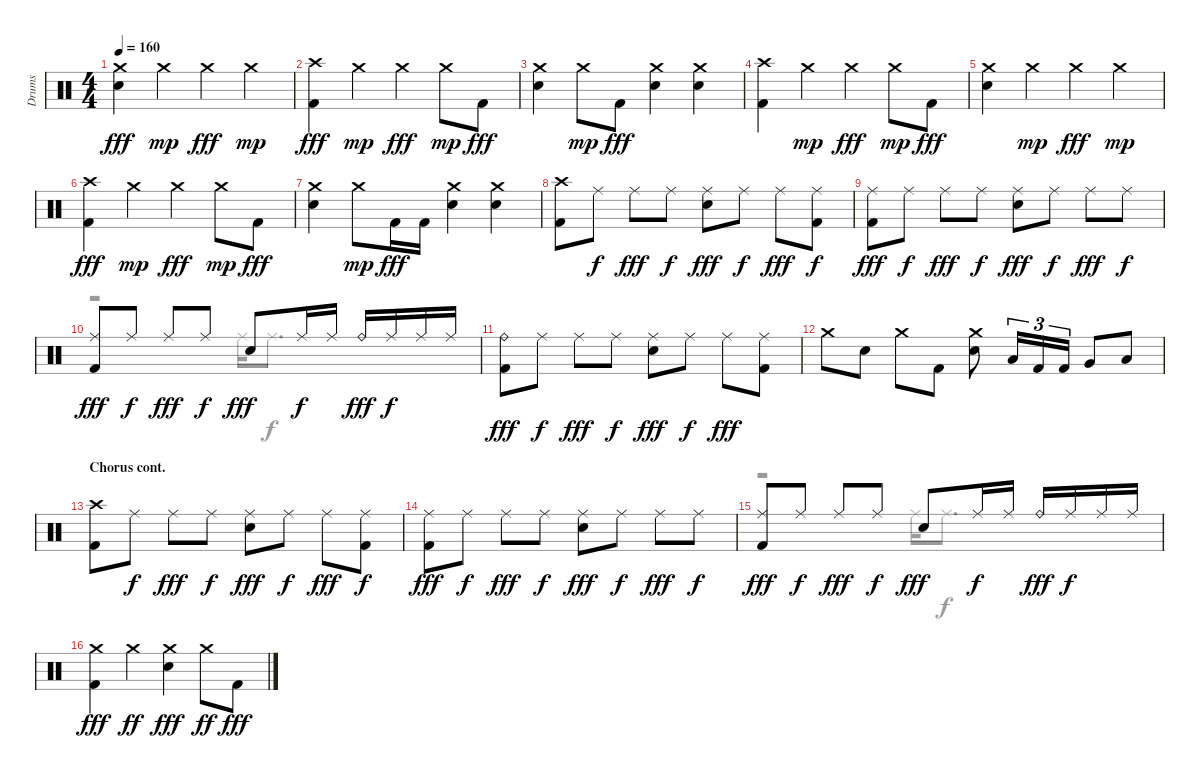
\track ("Drums" "Drums") {instrument percussion}
\staff {score}
\articulation defaults
\voice
\ts (4 4)
\tempo 160
\clef neutral
\ks aminor
("Crash medium (hit)" "Snare (hit) 2").4{dy fff} "Crash medium (hit)".4{dy mp} "Crash medium (hit)".4{dy fff} "Crash medium (hit)".4{dy mp} |
("Kick (hit) 2" "Crash high (hit)").4{dy fff} "Crash medium (hit)".4{dy mp} "Crash medium (hit)".4{dy fff} "Crash medium (hit)".8{dy mp} "Kick (hit) 2".8{dy fff} |
("Snare (hit) 2" "Crash medium (hit)").4 "Crash medium (hit)".8{dy mp} "Kick (hit) 2".8{dy fff} ("Snare (hit) 2" "Crash medium (hit)").4 ("Crash medium (hit)" "Snare (hit) 2").4 |
("Crash high (hit)" "Kick (hit) 2").4 "Crash medium (hit)".4{dy mp} "Crash medium (hit)".4{dy fff} "Crash medium (hit)".8{dy mp} "Kick (hit) 2".8{dy fff} |
("Crash medium (hit)" "Snare (hit) 2").4 "Crash medium (hit)".4{dy mp} "Crash medium (hit)".4{dy fff} "Crash medium (hit)".4{dy mp} |
("Crash high (hit)" "Kick (hit) 2").4{dy fff} "Crash medium (hit)".4{dy mp} "Crash medium (hit)".4{dy fff} "Crash medium (hit)".8{dy mp} "Kick (hit) 2".8{dy fff} |
("Crash medium (hit)" "Snare (hit) 2").4 "Crash medium (hit)".8{dy mp} "Kick (hit) 2".16{dy fff} "Kick (hit) 2".16 ("Snare (hit) 2" "Crash medium (hit)").4 ("Crash medium (hit)" "Snare (hit) 2").4 |
("Kick (hit) 2" "Crash high (hit)").8 "Ride (middle)".8{dy f} "Ride (middle)".8{dy fff} "Ride (middle)".8{dy f} ("Snare (hit) 2" "Ride (middle)").8{dy fff} "Ride (middle)".8{dy f} "Ride (middle)".8{dy fff} ("Kick (hit) 2" "Ride (middle)").8{dy f} |
("Ride (middle)" "Kick (hit) 2").8{dy fff} "Ride (middle)".8{dy f} "Ride (middle)".8{dy fff} "Ride (middle)".8{dy f} ("Snare (hit) 2" "Ride (middle)").8{dy fff} "Ride (middle)".8{dy f} "Ride (middle)".8{dy fff} "Ride (middle)".8{dy f} |
("Ride (middle)" "Kick (hit) 2").8{dy fff} "Ride (middle)".8{dy f} "Ride (middle)".8{dy fff} "Ride (middle)".8{dy f} "Snare (hit) 2".8{dy fff} "Ride (middle)".16{dy f} "Ride (middle)".16 "Ride (bell)".16{dy fff} "Ride (middle)".16{dy f} "Ride (middle)".16 "Ride (middle)".16 |
("Ride (bell)" "Kick (hit) 2").8{dy fff} "Ride (middle)".8{dy f} "Ride (middle)".8{dy fff} "Ride (middle)".8{dy f} ("Snare (hit) 2" "Ride (middle)").8{dy fff} "Ride (middle)".8{dy f} "Ride (middle)".8{dy fff} ("Kick (hit) 2" "Ride (middle)").8 |
"Crash medium (hit)".8 "Snare (hit) 2".8 "Crash medium (hit)".8 "Kick (hit) 2".8 ("Crash medium (hit)" "Snare (hit) 2").8 "Low Tom (hit)".16{tu (3 2)} "Kick (hit) 2".16{tu (3 2)} "Kick (hit) 2".16{tu (3 2)} "Very Low Tom (hit)".8 "Low Floor Tom (hit)".8 |
\section ("" "Chorus cont.")
("Crash high (hit)" "Kick (hit) 2").8 "Ride (middle)".8{dy f} "Ride (middle)".8{dy fff} "Ride (middle)".8{dy f} ("Snare (hit) 2" "Ride (middle)").8{dy fff} "Ride (middle)".8{dy f} "Ride (middle)".8{dy fff} ("Ride (middle)" "Kick (hit) 2").8{dy f} |
("Kick (hit) 2" "Ride (middle)").8{dy fff} "Ride (middle)".8{dy f} "Ride (middle)".8{dy fff} "Ride (middle)".8{dy f} ("Ride (middle)" "Snare (hit) 2").8{dy fff} "Ride (middle)".8{dy f} "Ride (middle)".8{dy fff} "Ride (middle)".8{dy f} |
("Ride (middle)" "Kick (hit) 2").8{dy fff} "Ride (middle)".8{dy f} "Ride (middle)".8{dy fff} "Ride (middle)".8{dy f} "Snare (hit) 2".8{dy fff} "Ride (middle)".16{dy f} "Ride (middle)".16 "Ride (bell)".16{dy fff} "Ride (middle)".16{dy f} "Ride (middle)".16 "Ride (middle)".16 |
("Crash medium (hit)" "Kick (hit) 2").4{dy fff} "Crash medium (hit)".4{dy ff} ("Crash medium (hit)" "Snare (hit) 2").4{dy fff} "Crash medium (hit)".8{dy ff} "Kick (hit) 2".8{dy fff}
\voice
\clef neutral
\ottava regular
\simile none
\ks aminor
|
|
|
|
|
|
|
|
|
r.2 "Ride (middle)".16{dy fff} "Ride (middle)".8{d dy f} |
|
|
|
|
r.2 "Ride (middle)".16{dy fff} "Ride (middle)".8{d dy f} |
